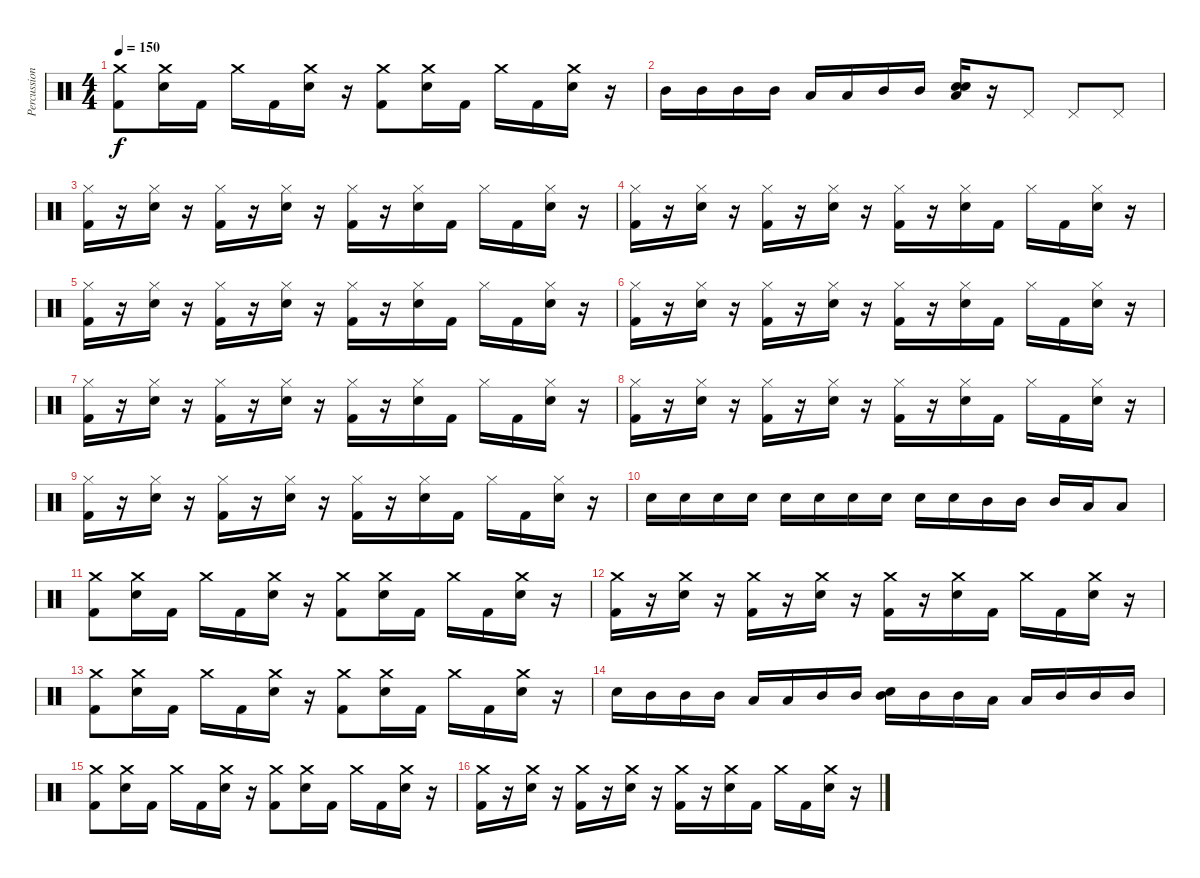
\track ("Percussions" "Percussion") {instrument percussion}
\staff {score}
\articulation defaults
\ts (4 4)
\tempo 150
\clef neutral
\ks c
("Crash medium (hit)" "Kick (hit) 2").8{dy f} ("Crash medium (hit)" "Snare (hit) 2").16 "Kick (hit) 2".16 "Crash medium (hit)".16 "Kick (hit) 2".16 ("Crash medium (hit)" "Snare (hit) 2").16 r.16 ("Crash medium (hit)" "Kick (hit) 2").8 ("Crash medium (hit)" "Snare (hit) 2").16 "Kick (hit) 2".16 "Crash medium (hit)".16 "Kick (hit) 2".16 ("Crash medium (hit)" "Snare (hit) 2").16 r.16 |
"Mid Tom (hit)".16 "Mid Tom (hit)".16 "Mid Tom (hit)".16 "Mid Tom (hit)".16 "Low Tom (hit)".16 "Low Floor Tom (hit)".16 "Mid Tom (hit)".16 "Mid Tom (hit)".16 ("Snare (hit) 2" "Snare (hit) 2" "Low Floor Tom (hit)").16{bu 30} r.16 "Pedal Hi-Hat (hit)".8 "Pedal Hi-Hat (hit)".8 "Pedal Hi-Hat (hit)".8 |
("Hi-Hat (closed)" "Kick (hit) 2").16 r.16 ("Hi-Hat (closed)" "Snare (hit) 2").16 r.16 ("Hi-Hat (closed)" "Kick (hit) 2").16 r.16 ("Hi-Hat (closed)" "Snare (hit) 2").16 r.16 ("Hi-Hat (closed)" "Kick (hit) 2").16 r.16 ("Hi-Hat (closed)" "Snare (hit) 2").16 "Kick (hit) 2".16 "Hi-Hat (closed)".16 "Kick (hit) 2".16 ("Hi-Hat (closed)" "Snare (hit) 2").16 r.16 |
("Hi-Hat (closed)" "Kick (hit) 2").16 r.16 ("Hi-Hat (closed)" "Snare (hit) 2").16 r.16 ("Hi-Hat (closed)" "Kick (hit) 2").16 r.16 ("Hi-Hat (closed)" "Snare (hit) 2").16 r.16 ("Hi-Hat (closed)" "Kick (hit) 2").16 r.16 ("Hi-Hat (closed)" "Snare (hit) 2").16 "Kick (hit) 2".16 "Hi-Hat (closed)".16 "Kick (hit) 2".16 ("Hi-Hat (closed)" "Snare (hit) 2").16 r.16 |
("Hi-Hat (closed)" "Kick (hit) 2").16 r.16 ("Hi-Hat (closed)" "Snare (hit) 2").16 r.16 ("Hi-Hat (closed)" "Kick (hit) 2").16 r.16 ("Hi-Hat (closed)" "Snare (hit) 2").16 r.16 ("Hi-Hat (closed)" "Kick (hit) 2").16 r.16 ("Hi-Hat (closed)" "Snare (hit) 2").16 "Kick (hit) 2".16 "Hi-Hat (closed)".16 "Kick (hit) 2".16 ("Hi-Hat (closed)" "Snare (hit) 2").16 r.16 |
("Hi-Hat (closed)" "Kick (hit) 2").16 r.16 ("Hi-Hat (closed)" "Snare (hit) 2").16 r.16 ("Hi-Hat (closed)" "Kick (hit) 2").16 r.16 ("Hi-Hat (closed)" "Snare (hit) 2").16 r.16 ("Hi-Hat (closed)" "Kick (hit) 2").16 r.16 ("Hi-Hat (closed)" "Snare (hit) 2").16 "Kick (hit) 2".16 "Hi-Hat (closed)".16 "Kick (hit) 2".16 ("Hi-Hat (closed)" "Snare (hit) 2").16 r.16 |
("Hi-Hat (closed)" "Kick (hit) 2").16 r.16 ("Hi-Hat (closed)" "Snare (hit) 2").16 r.16 ("Hi-Hat (closed)" "Kick (hit) 2").16 r.16 ("Hi-Hat (closed)" "Snare (hit) 2").16 r.16 ("Hi-Hat (closed)" "Kick (hit) 2").16 r.16 ("Hi-Hat (closed)" "Snare (hit) 2").16 "Kick (hit) 2".16 "Hi-Hat (closed)".16 "Kick (hit) 2".16 ("Hi-Hat (closed)" "Snare (hit) 2").16 r.16 |
("Hi-Hat (closed)" "Kick (hit) 2").16 r.16 ("Hi-Hat (closed)" "Snare (hit) 2").16 r.16 ("Hi-Hat (closed)" "Kick (hit) 2").16 r.16 ("Hi-Hat (closed)" "Snare (hit) 2").16 r.16 ("Hi-Hat (closed)" "Kick (hit) 2").16 r.16 ("Hi-Hat (closed)" "Snare (hit) 2").16 "Kick (hit) 2".16 "Hi-Hat (closed)".16 "Kick (hit) 2".16 ("Hi-Hat (closed)" "Snare (hit) 2").16 r.16 |
("Hi-Hat (closed)" "Kick (hit) 2").16 r.16 ("Hi-Hat (closed)" "Snare (hit) 2").16 r.16 ("Hi-Hat (closed)" "Kick (hit) 2").16 r.16 ("Hi-Hat (closed)" "Snare (hit) 2").16 r.16 ("Hi-Hat (closed)" "Kick (hit) 2").16 r.16 ("Hi-Hat (closed)" "Snare (hit) 2").16 "Kick (hit) 2".16 "Hi-Hat (closed)".16 "Kick (hit) 2".16 ("Hi-Hat (closed)" "Snare (hit) 2").16 r.16 |
"Snare (hit) 2".16 "Snare (hit) 2".16 "Snare (hit) 2".16 "Snare (hit) 2".16 "Snare (hit) 2".16 "Snare (hit) 2".16 "Snare (hit) 2".16 "Snare (hit) 2".16 "Snare (hit) 2".16 "Snare (hit) 2".16 "Mid Tom (hit)".16 "Mid Tom (hit)".16 "Mid Tom (hit)".16 "Low Tom (hit)".16 "Low Floor Tom (hit)".8 |
("Crash medium (hit)" "Kick (hit) 2").8 ("Crash medium (hit)" "Snare (hit) 2").16 "Kick (hit) 2".16 "Crash medium (hit)".16 "Kick (hit) 2".16 ("Crash medium (hit)" "Snare (hit) 2").16 r.16 ("Crash medium (hit)" "Kick (hit) 2").8 ("Crash medium (hit)" "Snare (hit) 2").16 "Kick (hit) 2".16 "Crash medium (hit)".16 "Kick (hit) 2".16 ("Crash medium (hit)" "Snare (hit) 2").16 r.16 |
("Crash medium (hit)" "Kick (hit) 2").16 r.16 ("Crash medium (hit)" "Snare (hit) 2").16 r.16 ("Crash medium (hit)" "Kick (hit) 2").16 r.16 ("Crash medium (hit)" "Snare (hit) 2").16 r.16 ("Crash medium (hit)" "Kick (hit) 2").16 r.16 ("Crash medium (hit)" "Snare (hit) 2").16 "Kick (hit) 2".16 "Crash medium (hit)".16 "Kick (hit) 2".16 ("Crash medium (hit)" "Snare (hit) 2").16 r.16 |
("Crash medium (hit)" "Kick (hit) 2").8 ("Crash medium (hit)" "Snare (hit) 2").16 "Kick (hit) 2".16 "Crash medium (hit)".16 "Kick (hit) 2".16 ("Crash medium (hit)" "Snare (hit) 2").16 r.16 ("Crash medium (hit)" "Kick (hit) 2").8 ("Crash medium (hit)" "Snare (hit) 2").16 "Kick (hit) 2".16 "Crash medium (hit)".16 "Kick (hit) 2".16 ("Crash medium (hit)" "Snare (hit) 2").16 r.16 |
"Snare (hit) 2".16 "Mid Tom (hit)".16 "Mid Tom (hit)".16 "Mid Tom (hit)".16 "Low Tom (hit)".16 "Low Floor Tom (hit)".16 "Mid Tom (hit)".16 "Mid Tom (hit)".16 ("Mid Tom (hit)" "Snare (hit) 2").16 "Mid Tom (hit)".16 "Mid Tom (hit)".16 "Low Tom (hit)".16 "Low Floor Tom (hit)".16 "Mid Tom (hit)".16 "Mid Tom (hit)".16 "Mid Tom (hit)".16 |
("Crash medium (hit)" "Kick (hit) 2").8 ("Crash medium (hit)" "Snare (hit) 2").16 "Kick (hit) 2".16 "Crash medium (hit)".16 "Kick (hit) 2".16 ("Crash medium (hit)" "Snare (hit) 2").16 r.16 ("Crash medium (hit)" "Kick (hit) 2").8 ("Crash medium (hit)" "Snare (hit) 2").16 "Kick (hit) 2".16 "Crash medium (hit)".16 "Kick (hit) 2".16 ("Crash medium (hit)" "Snare (hit) 2").16 r.16 |
("Crash medium (hit)" "Kick (hit) 2").16 r.16 ("Crash medium (hit)" "Snare (hit) 2").16 r.16 ("Crash medium (hit)" "Kick (hit) 2").16 r.16 ("Crash medium (hit)" "Snare (hit) 2").16 r.16 ("Crash medium (hit)" "Kick (hit) 2").16 r.16 ("Crash medium (hit)" "Snare (hit) 2").16 "Kick (hit) 2".16 "Crash medium (hit)".16 "Kick (hit) 2".16 ("Crash medium (hit)" "Snare (hit) 2").16 r.16
